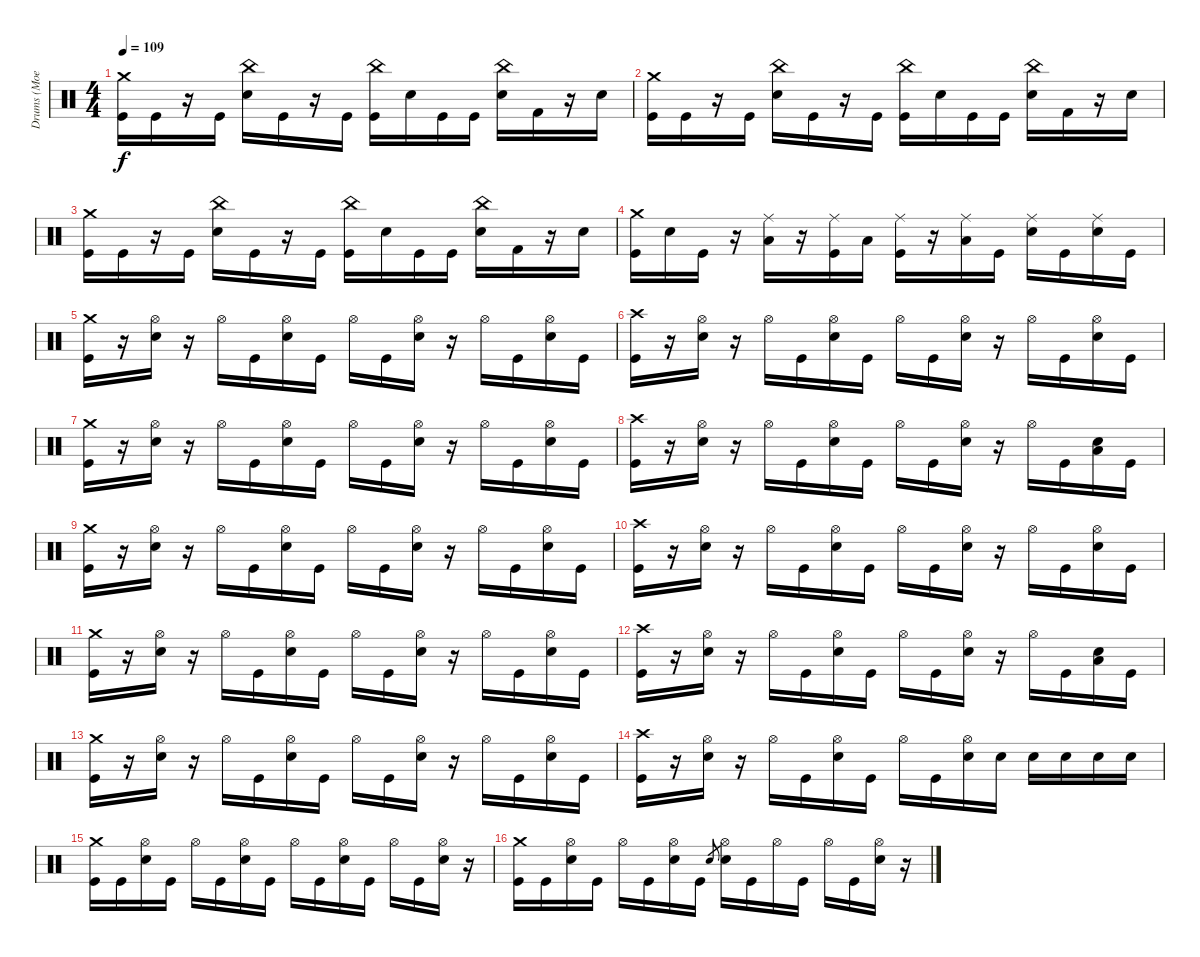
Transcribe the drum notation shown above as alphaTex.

\track ("Drums (Moe)" "Drums (Moe") {instrument percussion}
\staff {score}
\articulation defaults
\ts (4 4)
\tempo 109
\clef neutral
\ks c
("Kick (hit)" "Crash medium (hit)").16{dy f} "Kick (hit)".16 r.16 "Kick (hit)".16 ("Snare (hit) 2" "China (hit)").16 "Kick (hit)".16 r.16 "Kick (hit)".16 ("Kick (hit)" "China (hit)").16 "Snare (hit) 2".16 "Kick (hit)".16 "Kick (hit)".16 ("Snare (hit) 2" "China (hit)").16 "Kick (hit) 2".16 r.16 "Snare (hit) 2".16 |
("Kick (hit)" "Crash medium (hit)").16 "Kick (hit)".16 r.16 "Kick (hit)".16 ("Snare (hit) 2" "China (hit)").16 "Kick (hit)".16 r.16 "Kick (hit)".16 ("Kick (hit)" "China (hit)").16 "Snare (hit) 2".16 "Kick (hit)".16 "Kick (hit)".16 ("Snare (hit) 2" "China (hit)").16 "Kick (hit) 2".16 r.16 "Snare (hit) 2".16 |
("Kick (hit)" "Crash medium (hit)").16 "Kick (hit)".16 r.16 "Kick (hit)".16 ("Snare (hit) 2" "China (hit)").16 "Kick (hit)".16 r.16 "Kick (hit)".16 ("Kick (hit)" "China (hit)").16 "Snare (hit) 2".16 "Kick (hit)".16 "Kick (hit)".16 ("Snare (hit) 2" "China (hit)").16 "Kick (hit) 2".16 r.16 "Snare (hit) 2".16 |
("Kick (hit)" "Crash medium (hit)").16 "Snare (hit) 2".16 "Kick (hit)".16 r.16 ("Low Tom (hit)" "Ride (middle)").16 r.16 ("Kick (hit)" "Ride (middle)").16 "Low Tom (hit)".16 ("Kick (hit)" "Ride (middle)").16 r.16 ("Low Tom (hit)" "Ride (middle)").16 "Kick (hit)".16 ("Snare (hit) 2" "Ride (middle)").16 "Kick (hit)".16 ("Snare (hit) 2" "Ride (middle)").16 "Kick (hit)".16 |
("Kick (hit)" "Crash medium (hit)").16 r.16 ("Snare (hit) 2" "Hi-Hat (open)").16 r.16 "Hi-Hat (open)".16 "Kick (hit)".16 ("Snare (hit) 2" "Hi-Hat (open)").16 "Kick (hit)".16 "Hi-Hat (open)".16 "Kick (hit)".16 ("Snare (hit) 2" "Hi-Hat (open)").16 r.16 "Hi-Hat (open)".16 "Kick (hit)".16 ("Snare (hit) 2" "Hi-Hat (open)").16 "Kick (hit)".16 |
("Kick (hit)" "Crash high (hit)").16 r.16 ("Snare (hit) 2" "Hi-Hat (open)").16 r.16 "Hi-Hat (open)".16 "Kick (hit)".16 ("Snare (hit) 2" "Hi-Hat (open)").16 "Kick (hit)".16 "Hi-Hat (open)".16 "Kick (hit)".16 ("Snare (hit) 2" "Hi-Hat (open)").16 r.16 "Hi-Hat (open)".16 "Kick (hit)".16 ("Snare (hit) 2" "Hi-Hat (open)").16 "Kick (hit)".16 |
("Kick (hit)" "Crash medium (hit)").16 r.16 ("Snare (hit) 2" "Hi-Hat (open)").16 r.16 "Hi-Hat (open)".16 "Kick (hit)".16 ("Snare (hit) 2" "Hi-Hat (open)").16 "Kick (hit)".16 "Hi-Hat (open)".16 "Kick (hit)".16 ("Snare (hit) 2" "Hi-Hat (open)").16 r.16 "Hi-Hat (open)".16 "Kick (hit)".16 ("Snare (hit) 2" "Hi-Hat (open)").16 "Kick (hit)".16 |
("Kick (hit)" "Crash high (hit)").16 r.16 ("Snare (hit) 2" "Hi-Hat (open)").16 r.16 "Hi-Hat (open)".16 "Kick (hit)".16 ("Snare (hit) 2" "Hi-Hat (open)").16 "Kick (hit)".16 "Hi-Hat (open)".16 "Kick (hit)".16 ("Snare (hit) 2" "Hi-Hat (open)").16 r.16 "Hi-Hat (open)".16 "Kick (hit)".16 ("Snare (hit) 2" "Low Floor Tom (hit)").16 "Kick (hit)".16 |
("Kick (hit)" "Crash medium (hit)").16 r.16 ("Snare (hit) 2" "Hi-Hat (open)").16 r.16 "Hi-Hat (open)".16 "Kick (hit)".16 ("Snare (hit) 2" "Hi-Hat (open)").16 "Kick (hit)".16 "Hi-Hat (open)".16 "Kick (hit)".16 ("Snare (hit) 2" "Hi-Hat (open)").16 r.16 "Hi-Hat (open)".16 "Kick (hit)".16 ("Snare (hit) 2" "Hi-Hat (open)").16 "Kick (hit)".16 |
("Kick (hit)" "Crash high (hit)").16 r.16 ("Snare (hit) 2" "Hi-Hat (open)").16 r.16 "Hi-Hat (open)".16 "Kick (hit)".16 ("Snare (hit) 2" "Hi-Hat (open)").16 "Kick (hit)".16 "Hi-Hat (open)".16 "Kick (hit)".16 ("Snare (hit) 2" "Hi-Hat (open)").16 r.16 "Hi-Hat (open)".16 "Kick (hit)".16 ("Snare (hit) 2" "Hi-Hat (open)").16 "Kick (hit)".16 |
("Kick (hit)" "Crash medium (hit)").16 r.16 ("Snare (hit) 2" "Hi-Hat (open)").16 r.16 "Hi-Hat (open)".16 "Kick (hit)".16 ("Snare (hit) 2" "Hi-Hat (open)").16 "Kick (hit)".16 "Hi-Hat (open)".16 "Kick (hit)".16 ("Snare (hit) 2" "Hi-Hat (open)").16 r.16 "Hi-Hat (open)".16 "Kick (hit)".16 ("Snare (hit) 2" "Hi-Hat (open)").16 "Kick (hit)".16 |
("Kick (hit)" "Crash high (hit)").16 r.16 ("Snare (hit) 2" "Hi-Hat (open)").16 r.16 "Hi-Hat (open)".16 "Kick (hit)".16 ("Snare (hit) 2" "Hi-Hat (open)").16 "Kick (hit)".16 "Hi-Hat (open)".16 "Kick (hit)".16 ("Snare (hit) 2" "Hi-Hat (open)").16 r.16 "Hi-Hat (open)".16 "Kick (hit)".16 ("Snare (hit) 2" "Low Floor Tom (hit)").16 "Kick (hit)".16 |
("Kick (hit)" "Crash medium (hit)").16 r.16 ("Snare (hit) 2" "Hi-Hat (open)").16 r.16 "Hi-Hat (open)".16 "Kick (hit)".16 ("Snare (hit) 2" "Hi-Hat (open)").16 "Kick (hit)".16 "Hi-Hat (open)".16 "Kick (hit)".16 ("Snare (hit) 2" "Hi-Hat (open)").16 r.16 "Hi-Hat (open)".16 "Kick (hit)".16 ("Snare (hit) 2" "Hi-Hat (open)").16 "Kick (hit)".16 |
("Kick (hit)" "Crash high (hit)").16 r.16 ("Snare (hit) 2" "Hi-Hat (open)").16 r.16 "Hi-Hat (open)".16 "Kick (hit)".16 ("Snare (hit) 2" "Hi-Hat (open)").16 "Kick (hit)".16 "Hi-Hat (open)".16 "Kick (hit)".16 ("Snare (hit) 2" "Hi-Hat (open)").16 "Snare (hit) 2".16 "Snare (hit) 2".16 "Snare (hit) 2".16 "Snare (hit) 2".16 "Snare (hit) 2".16 |
("Kick (hit)" "Crash medium (hit)").16 "Kick (hit)".16 ("Snare (hit) 2" "Hi-Hat (open)").16 "Kick (hit)".16 "Hi-Hat (open)".16 "Kick (hit)".16 ("Snare (hit) 2" "Hi-Hat (open)").16 "Kick (hit)".16 "Hi-Hat (open)".16 "Kick (hit)".16 ("Snare (hit) 2" "Hi-Hat (open)").16 "Kick (hit)".16 "Hi-Hat (open)".16 "Kick (hit)".16 ("Snare (hit) 2" "Hi-Hat (open)").16 r.16 |
("Kick (hit)" "Crash medium (hit)").16 "Kick (hit)".16 ("Snare (hit) 2" "Hi-Hat (open)").16 "Kick (hit)".16 "Hi-Hat (open)".16 "Kick (hit)".16 ("Snare (hit) 2" "Hi-Hat (open)").16 "Kick (hit)".16 "Snare (hit) 2".8{gr} ("Snare (hit) 2" "Hi-Hat (open)").16 "Kick (hit)".16 "Hi-Hat (open)".16 "Kick (hit)".16 "Hi-Hat (open)".16 "Kick (hit)".16 ("Snare (hit) 2" "Hi-Hat (open)").16 r.16
